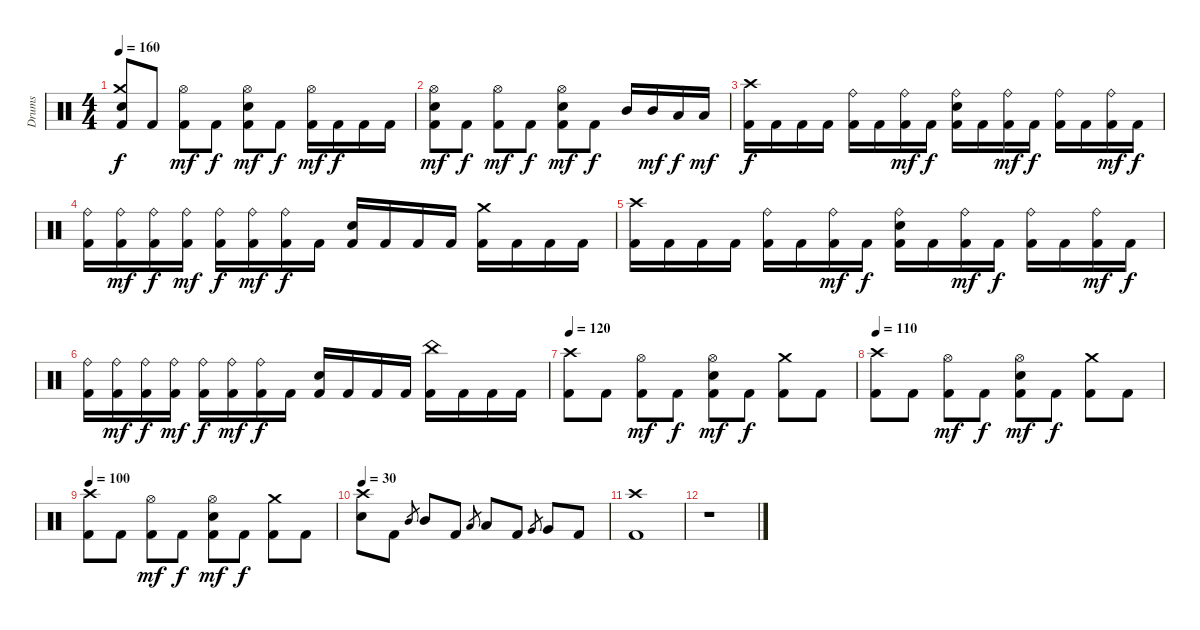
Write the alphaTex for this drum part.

\track ("Drums" "Drums") {instrument percussion}
\staff {score}
\articulation defaults
\ts (4 4)
\tempo 160
\clef neutral
\ks c
("Kick (hit) 2" "Crash medium (hit)" "Electric Snare (hit)").8{dy f} "Kick (hit) 2".8 ("Kick (hit) 2" "Hi-Hat (open)").8{dy mf} "Kick (hit) 2".8{dy f} ("Kick (hit) 2" "Hi-Hat (open)" "Electric Snare (hit)").8{dy mf} "Kick (hit) 2".8{dy f} ("Kick (hit) 2" "Hi-Hat (open)").16{dy mf} "Kick (hit) 2".16{dy f} "Kick (hit) 2".16 "Kick (hit) 2".16 |
("Kick (hit) 2" "Hi-Hat (open)" "Electric Snare (hit)").8{dy mf} "Kick (hit) 2".8{dy f} ("Kick (hit) 2" "Hi-Hat (open)").8{dy mf} "Kick (hit) 2".8{dy f} ("Kick (hit) 2" "Hi-Hat (open)" "Electric Snare (hit)").8{dy mf} "Kick (hit) 2".8{dy f} "Mid Tom (hit)".16 "Mid Tom (hit)".16{dy mf} "Low Tom (hit)".16{dy f} "Low Tom (hit)".16{dy mf} |
("Kick (hit) 2" "Crash high (hit)").16{dy f} "Kick (hit) 2".16 "Kick (hit) 2".16 "Kick (hit) 2".16 ("Kick (hit) 2" "Ride (bell)").16 "Kick (hit) 2".16 ("Kick (hit) 2" "Ride (bell)").16{dy mf} "Kick (hit) 2".16{dy f} ("Kick (hit) 2" "Ride (bell)" "Electric Snare (hit)").16 "Kick (hit) 2".16 ("Kick (hit) 2" "Ride (bell)").16{dy mf} "Kick (hit) 2".16{dy f} ("Kick (hit) 2" "Ride (bell)").16 "Kick (hit) 2".16 ("Kick (hit) 2" "Ride (bell)").16{dy mf} "Kick (hit) 2".16{dy f} |
("Kick (hit) 2" "Ride (bell)").16 ("Kick (hit) 2" "Ride (bell)").16{dy mf} ("Kick (hit) 2" "Ride (bell)").16{dy f} ("Kick (hit) 2" "Ride (bell)").16{dy mf} ("Kick (hit) 2" "Ride (bell)").16{dy f} ("Kick (hit) 2" "Ride (bell)").16{dy mf} ("Kick (hit) 2" "Ride (bell)").16{dy f} "Kick (hit) 2".16 ("Kick (hit) 2" "Electric Snare (hit)").16 "Kick (hit) 2".16 "Kick (hit) 2".16 "Kick (hit) 2".16 ("Kick (hit) 2" "Crash medium (hit)").16 "Kick (hit) 2".16 "Kick (hit) 2".16 "Kick (hit) 2".16 |
("Kick (hit) 2" "Crash high (hit)").16 "Kick (hit) 2".16 "Kick (hit) 2".16 "Kick (hit) 2".16 ("Kick (hit) 2" "Ride (bell)").16 "Kick (hit) 2".16 ("Kick (hit) 2" "Ride (bell)").16{dy mf} "Kick (hit) 2".16{dy f} ("Kick (hit) 2" "Ride (bell)" "Electric Snare (hit)").16 "Kick (hit) 2".16 ("Kick (hit) 2" "Ride (bell)").16{dy mf} "Kick (hit) 2".16{dy f} ("Kick (hit) 2" "Ride (bell)").16 "Kick (hit) 2".16 ("Kick (hit) 2" "Ride (bell)").16{dy mf} "Kick (hit) 2".16{dy f} |
("Kick (hit) 2" "Ride (bell)").16 ("Kick (hit) 2" "Ride (bell)").16{dy mf} ("Kick (hit) 2" "Ride (bell)").16{dy f} ("Kick (hit) 2" "Ride (bell)").16{dy mf} ("Kick (hit) 2" "Ride (bell)").16{dy f} ("Kick (hit) 2" "Ride (bell)").16{dy mf} ("Kick (hit) 2" "Ride (bell)").16{dy f} "Kick (hit) 2".16 ("Kick (hit) 2" "Electric Snare (hit)").16 "Kick (hit) 2".16 "Kick (hit) 2".16 "Kick (hit) 2".16 ("Kick (hit) 2" "China (hit)").16 "Kick (hit) 2".16 "Kick (hit) 2".16 "Kick (hit) 2".16 |
\tempo 120
("Kick (hit) 2" "Crash high (hit)").8 "Kick (hit) 2".8 ("Kick (hit) 2" "Hi-Hat (open)").8{dy mf} "Kick (hit) 2".8{dy f} ("Kick (hit) 2" "Hi-Hat (open)" "Electric Snare (hit)").8{dy mf} "Kick (hit) 2".8{dy f} ("Kick (hit) 2" "Crash medium (hit)").8 "Kick (hit) 2".8 |
\tempo 110
("Kick (hit) 2" "Crash high (hit)").8 "Kick (hit) 2".8 ("Kick (hit) 2" "Hi-Hat (open)").8{dy mf} "Kick (hit) 2".8{dy f} ("Kick (hit) 2" "Hi-Hat (open)" "Electric Snare (hit)").8{dy mf} "Kick (hit) 2".8{dy f} ("Kick (hit) 2" "Crash medium (hit)").8 "Kick (hit) 2".8 |
\tempo 100
("Kick (hit) 2" "Crash high (hit)").8 "Kick (hit) 2".8 ("Kick (hit) 2" "Hi-Hat (open)").8{dy mf} "Kick (hit) 2".8{dy f} ("Kick (hit) 2" "Hi-Hat (open)" "Electric Snare (hit)").8{dy mf} "Kick (hit) 2".8{dy f} ("Kick (hit) 2" "Crash medium (hit)").8 "Kick (hit) 2".8 |
\tempo 30
("Crash high (hit)" "Electric Snare (hit)").8 "Kick (hit) 2".8 "Mid Tom (hit)".8{gr} "Mid Tom (hit)".8 "Kick (hit) 2".8 "Low Tom (hit)".8{gr} "Low Tom (hit)".8 "Kick (hit) 2".8 "Very Low Tom (hit)".8{gr} "Very Low Tom (hit)".8 "Kick (hit) 2".8 |
("Kick (hit) 2" "Crash high (hit)").1 |
r.1
